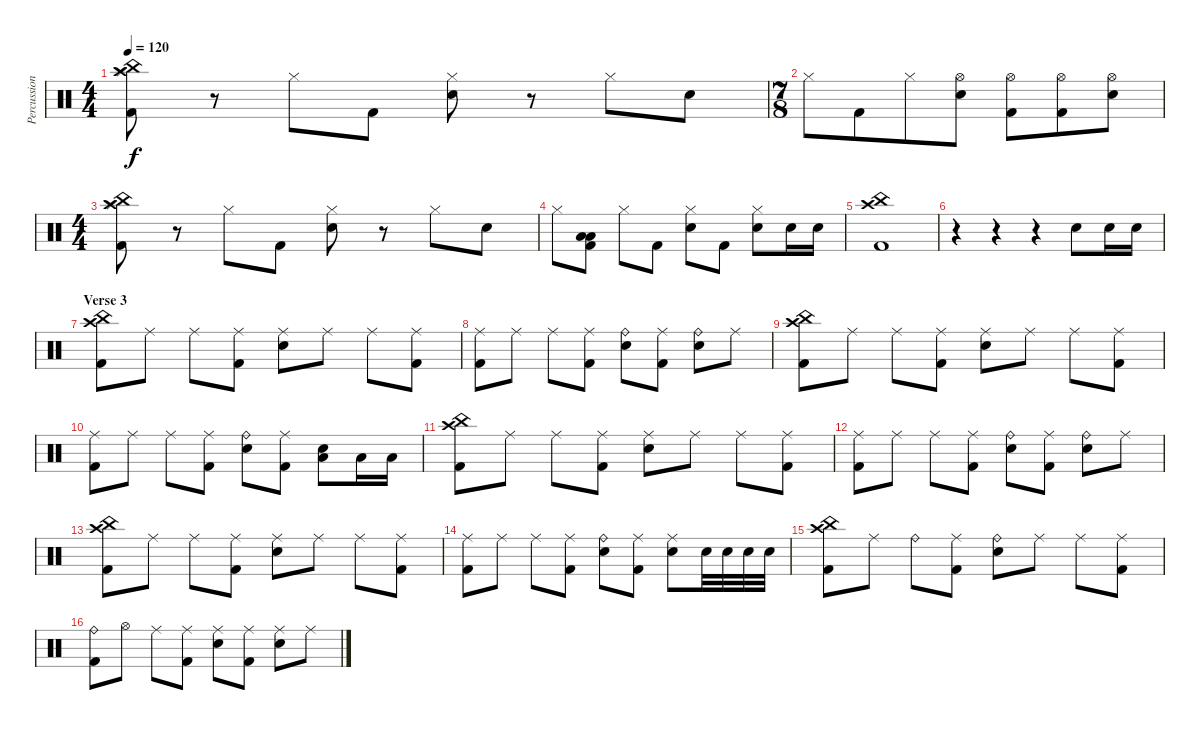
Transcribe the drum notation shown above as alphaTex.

\track ("Percussion" "Percussion") {instrument percussion}
\staff {score}
\articulation defaults
\ts (4 4)
\tempo 120
\clef neutral
\ks c
("Splash (hit)" "Crash high (hit)" "China (hit)" "Kick (hit) 2").8{dy f} r.8 "Hi-Hat (closed)".8 "Kick (hit) 2".8 ("Hi-Hat (closed)" "Electric Snare (hit)").8 r.8 "Hi-Hat (closed)".8 "Electric Snare (hit)".8 |
\ts (7 8)
"Hi-Hat (closed)".8 "Kick (hit) 2".8 "Hi-Hat (closed)".8 ("Hi-Hat (open)" "Electric Snare (hit)").8 ("Hi-Hat (open)" "Kick (hit) 2").8 ("Hi-Hat (open)" "Kick (hit) 2").8 ("Hi-Hat (open)" "Electric Snare (hit)").8 |
\ts (4 4)
("Splash (hit)" "Crash high (hit)" "China (hit)" "Kick (hit) 2").8 r.8 "Hi-Hat (closed)".8 "Kick (hit) 2".8 ("Hi-Hat (closed)" "Electric Snare (hit)").8 r.8 "Hi-Hat (closed)".8 "Electric Snare (hit)".8 |
"Hi-Hat (closed)".8 ("Low Tom (hit)" "Low Floor Tom (hit)" "Kick (hit) 2").8 "Hi-Hat (closed)".8 "Kick (hit) 2".8 ("Hi-Hat (closed)" "Electric Snare (hit)").8 "Kick (hit) 2".8 ("Hi-Hat (closed)" "Electric Snare (hit)").8 "Electric Snare (hit)".16 "Electric Snare (hit)".16 |
("China (hit)" "Crash high (hit)" "Kick (hit) 2").1 |
r.4 r.4 r.4 "Electric Snare (hit)".8 "Electric Snare (hit)".16 "Electric Snare (hit)".16 |
\section ("" "Verse 3")
("China (hit)" "Crash high (hit)" "Kick (hit) 2").8 "Ride (middle)".8 "Ride (middle)".8 ("Ride (middle)" "Kick (hit) 2").8 ("Ride (middle)" "Electric Snare (hit)").8 "Ride (middle)".8 "Ride (middle)".8 ("Ride (middle)" "Kick (hit) 2").8 |
("Ride (middle)" "Kick (hit) 2").8 "Ride (middle)".8 "Ride (middle)".8 ("Ride (middle)" "Kick (hit) 2").8 ("Ride (bell)" "Electric Snare (hit)").8 ("Ride (middle)" "Kick (hit) 2").8 ("Ride (bell)" "Electric Snare (hit)").8 "Ride (middle)".8 |
("China (hit)" "Crash high (hit)" "Kick (hit) 2").8 "Ride (middle)".8 "Ride (middle)".8 ("Ride (middle)" "Kick (hit) 2").8 ("Ride (middle)" "Electric Snare (hit)").8 "Ride (middle)".8 "Ride (middle)".8 ("Ride (middle)" "Kick (hit) 2").8 |
("Ride (middle)" "Kick (hit) 2").8 "Ride (middle)".8 "Ride (middle)".8 ("Ride (middle)" "Kick (hit) 2").8 ("Ride (bell)" "Electric Snare (hit)").8 ("Ride (middle)" "Kick (hit) 2").8 ("Electric Snare (hit)" "Low Floor Tom (hit)").8 "Low Tom (hit)".16 "Low Floor Tom (hit)".16 |
("China (hit)" "Crash high (hit)" "Kick (hit) 2").8 "Ride (middle)".8 "Ride (middle)".8 ("Ride (middle)" "Kick (hit) 2").8 ("Ride (middle)" "Electric Snare (hit)").8 "Ride (middle)".8 "Ride (middle)".8 ("Ride (middle)" "Kick (hit) 2").8 |
("Ride (middle)" "Kick (hit) 2").8 "Ride (middle)".8 "Ride (middle)".8 ("Ride (middle)" "Kick (hit) 2").8 ("Ride (bell)" "Electric Snare (hit)").8 ("Ride (middle)" "Kick (hit) 2").8 ("Ride (bell)" "Electric Snare (hit)").8 "Ride (middle)".8 |
("China (hit)" "Crash high (hit)" "Kick (hit) 2").8 "Ride (middle)".8 "Ride (middle)".8 ("Ride (middle)" "Kick (hit) 2").8 ("Ride (middle)" "Electric Snare (hit)").8 "Ride (middle)".8 "Ride (middle)".8 ("Ride (middle)" "Kick (hit) 2").8 |
("Ride (middle)" "Kick (hit) 2").8 "Ride (middle)".8 "Ride (middle)".8 ("Ride (middle)" "Kick (hit) 2").8 ("Ride (bell)" "Electric Snare (hit)").8 ("Ride (middle)" "Kick (hit) 2").8 ("Ride (middle)" "Electric Snare (hit)").8 "Electric Snare (hit)".32 "Electric Snare (hit)".32 "Electric Snare (hit)".32 "Electric Snare (hit)".32 |
("China (hit)" "Crash high (hit)" "Kick (hit) 2").8 "Ride (middle)".8 "Ride (bell)".8 ("Ride (middle)" "Kick (hit) 2").8 ("Ride (bell)" "Electric Snare (hit)").8 "Ride (middle)".8 "Ride (middle)".8 ("Ride (middle)" "Kick (hit) 2").8 |
("Ride (bell)" "Kick (hit) 2").8 "Hi-Hat (open)".8 "Ride (middle)".8 ("Ride (middle)" "Kick (hit) 2").8 ("Ride (middle)" "Electric Snare (hit)").8 ("Ride (middle)" "Kick (hit) 2").8 ("Ride (middle)" "Electric Snare (hit)").8 "Ride (middle)".8
